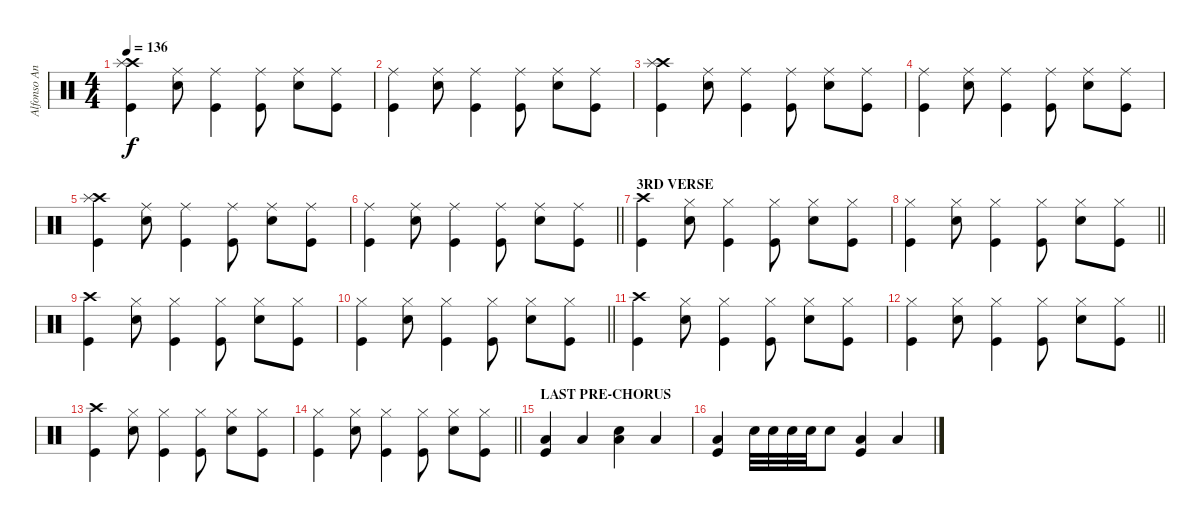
\track ("Alfonso Andre" "Alfonso An") {instrument percussion}
\staff {score}
\articulation defaults
\ts (4 4)
\tempo 136
\clef neutral
\ks c
("Kick (hit)" "Crash high (hit)" "Splash (hit)").4{dy f} ("Snare (hit) 2" "Ride (middle)").8 ("Kick (hit)" "Ride (middle)").4 ("Kick (hit)" "Ride (middle)").8 ("Snare (hit) 2" "Ride (middle)").8 ("Kick (hit)" "Ride (middle)").8 |
("Kick (hit)" "Ride (middle)").4 ("Snare (hit) 2" "Ride (middle)").8 ("Kick (hit)" "Ride (middle)").4 ("Kick (hit)" "Ride (middle)").8 ("Snare (hit) 2" "Ride (middle)").8 ("Kick (hit)" "Ride (middle)").8 |
("Kick (hit)" "Crash high (hit)" "Splash (hit)").4 ("Snare (hit) 2" "Ride (middle)").8 ("Kick (hit)" "Ride (middle)").4 ("Kick (hit)" "Ride (middle)").8 ("Snare (hit) 2" "Ride (middle)").8 ("Kick (hit)" "Ride (middle)").8 |
("Kick (hit)" "Ride (middle)").4 ("Snare (hit) 2" "Ride (middle)").8 ("Kick (hit)" "Ride (middle)").4 ("Kick (hit)" "Ride (middle)").8 ("Snare (hit) 2" "Ride (middle)").8 ("Kick (hit)" "Ride (middle)").8 |
("Kick (hit)" "Crash high (hit)" "Splash (hit)").4 ("Snare (hit) 2" "Ride (middle)").8 ("Kick (hit)" "Ride (middle)").4 ("Kick (hit)" "Ride (middle)").8 ("Snare (hit) 2" "Ride (middle)").8 ("Kick (hit)" "Ride (middle)").8 |
\barLineRight lightlight
("Kick (hit)" "Ride (middle)").4 ("Snare (hit) 2" "Ride (middle)").8 ("Kick (hit)" "Ride (middle)").4 ("Kick (hit)" "Ride (middle)").8 ("Snare (hit) 2" "Ride (middle)").8 ("Kick (hit)" "Ride (middle)").8 |
\section ("" "3RD VERSE")
("Kick (hit)" "Crash high (hit)").4 ("Snare (hit) 2" "Hi-Hat (closed)").8 ("Kick (hit)" "Hi-Hat (closed)").4 ("Kick (hit)" "Hi-Hat (closed)").8 ("Snare (hit) 2" "Hi-Hat (closed)").8 ("Kick (hit)" "Hi-Hat (closed)").8 |
\barLineRight lightlight
("Kick (hit)" "Hi-Hat (closed)").4 ("Snare (hit) 2" "Hi-Hat (closed)").8 ("Kick (hit)" "Hi-Hat (closed)").4 ("Kick (hit)" "Hi-Hat (closed)").8 ("Snare (hit) 2" "Hi-Hat (closed)").8 ("Kick (hit)" "Hi-Hat (closed)").8 |
("Kick (hit)" "Crash high (hit)").4 ("Snare (hit) 2" "Hi-Hat (closed)").8 ("Kick (hit)" "Hi-Hat (closed)").4 ("Kick (hit)" "Hi-Hat (closed)").8 ("Snare (hit) 2" "Hi-Hat (closed)").8 ("Kick (hit)" "Hi-Hat (closed)").8 |
\barLineRight lightlight
("Kick (hit)" "Hi-Hat (closed)").4 ("Snare (hit) 2" "Hi-Hat (closed)").8 ("Kick (hit)" "Hi-Hat (closed)").4 ("Kick (hit)" "Hi-Hat (closed)").8 ("Snare (hit) 2" "Hi-Hat (closed)").8 ("Kick (hit)" "Hi-Hat (closed)").8 |
("Kick (hit)" "Crash high (hit)").4 ("Snare (hit) 2" "Hi-Hat (closed)").8 ("Kick (hit)" "Hi-Hat (closed)").4 ("Kick (hit)" "Hi-Hat (closed)").8 ("Snare (hit) 2" "Hi-Hat (closed)").8 ("Kick (hit)" "Hi-Hat (closed)").8 |
\barLineRight lightlight
("Kick (hit)" "Hi-Hat (closed)").4 ("Snare (hit) 2" "Hi-Hat (closed)").8 ("Kick (hit)" "Hi-Hat (closed)").4 ("Kick (hit)" "Hi-Hat (closed)").8 ("Snare (hit) 2" "Hi-Hat (closed)").8 ("Kick (hit)" "Hi-Hat (closed)").8 |
("Kick (hit)" "Crash high (hit)").4 ("Snare (hit) 2" "Hi-Hat (closed)").8 ("Kick (hit)" "Hi-Hat (closed)").4 ("Kick (hit)" "Hi-Hat (closed)").8 ("Snare (hit) 2" "Hi-Hat (closed)").8 ("Kick (hit)" "Hi-Hat (closed)").8 |
\barLineRight lightlight
("Kick (hit)" "Hi-Hat (closed)").4 ("Snare (hit) 2" "Hi-Hat (closed)").8 ("Kick (hit)" "Hi-Hat (closed)").4 ("Kick (hit)" "Hi-Hat (closed)").8 ("Snare (hit) 2" "Hi-Hat (closed)").8 ("Kick (hit)" "Hi-Hat (closed)").8 |
\section ("" "LAST PRE-CHORUS")
("Kick (hit)" "Low Floor Tom (hit)").4 "Low Floor Tom (hit)".4 ("Snare (hit) 2" "Low Floor Tom (hit)").4 "Low Floor Tom (hit)".4 |
("Kick (hit)" "Low Floor Tom (hit)").4 "Snare (hit) 2".32 "Snare (hit) 2".32 "Snare (hit) 2".32 "Snare (hit) 2".32 "Snare (hit) 2".8 ("Kick (hit)" "Low Floor Tom (hit)").4 "Low Floor Tom (hit)".4
